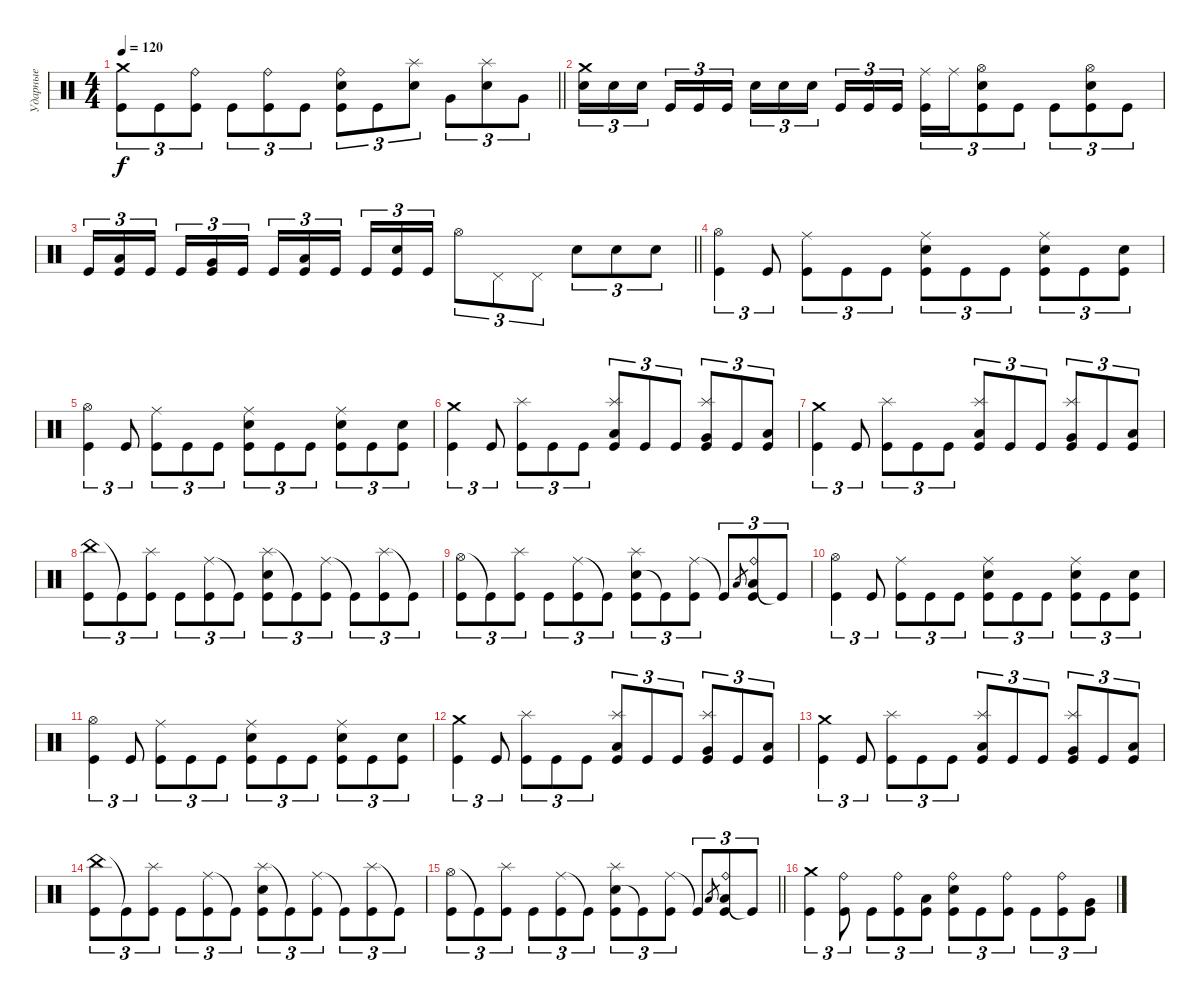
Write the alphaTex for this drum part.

\track ("Ударные" "Ударные") {instrument percussion}
\staff {score}
\articulation defaults
\ts (4 4)
\tempo 120
\clef neutral
\barLineRight lightlight
\ks c
("Crash medium (hit)" "Kick (hit)").8{tu (3 2) dy f} "Kick (hit)".8{tu (3 2)} ("Ride (bell)" "Kick (hit)").8{tu (3 2)} "Kick (hit)".8{tu (3 2)} ("Ride (bell)" "Kick (hit)").8{tu (3 2)} "Kick (hit)".8{tu (3 2)} ("Ride (bell)" "Kick (hit)" "Electric Snare (hit)").8{tu (3 2)} "Kick (hit)".8{tu (3 2)} ("Splash (hit)" "Electric Snare (hit)").8{tu (3 2)} "Very Low Tom (hit)".8{tu (3 2)} ("Splash (hit)" "Electric Snare (hit)").8{tu (3 2)} "Very Low Tom (hit)".8{tu (3 2)} |
("Crash medium (hit)" "Electric Snare (hit)").16{tu (3 2)} "Electric Snare (hit)".16{tu (3 2)} "Electric Snare (hit)".16{tu (3 2) beam splitsecondary} "Kick (hit)".16{tu (3 2)} "Kick (hit)".16{tu (3 2)} "Kick (hit)".16{tu (3 2)} "Electric Snare (hit)".16{tu (3 2)} "Electric Snare (hit)".16{tu (3 2)} "Electric Snare (hit)".16{tu (3 2) beam splitsecondary} "Kick (hit)".16{tu (3 2)} "Kick (hit)".16{tu (3 2)} "Kick (hit)".16{tu (3 2)} ("Ride (middle)" "Kick (hit)").16{tu (3 2)} "Ride (middle)".16{tu (3 2)} ("Hi-Hat (open)" "Electric Snare (hit)" "Kick (hit)").8{tu (3 2)} "Kick (hit)".8{tu (3 2)} "Kick (hit)".8{tu (3 2)} ("Hi-Hat (open)" "Electric Snare (hit)" "Kick (hit)").8{tu (3 2)} "Kick (hit)".8{tu (3 2)} |
\barLineRight lightlight "Kick (hit)".16{tu (3 2)}
("Low Tom (hit)" "Kick (hit)").16{tu (3 2)} "Kick (hit)".16{tu (3 2) beam splitsecondary} "Kick (hit)".16{tu (3 2)} ("Very Low Tom (hit)" "Kick (hit)").16{tu (3 2)} "Kick (hit)".16{tu (3 2)} "Kick (hit)".16{tu (3 2)} ("Kick (hit)" "Low Floor Tom (hit)").16{tu (3 2)} "Kick (hit)".16{tu (3 2) beam splitsecondary} "Kick (hit)".16{tu (3 2)} ("Electric Snare (hit)" "Kick (hit)").16{tu (3 2)} "Kick (hit)".16{tu (3 2)} "Hi-Hat (open)".8{tu (3 2)} "Pedal Hi-Hat (hit)".8{tu (3 2)} "Pedal Hi-Hat (hit)".8{tu (3 2)} "Electric Snare (hit)".8{tu (3 2)} "Electric Snare (hit)".8{tu (3 2)} "Electric Snare (hit)".8{tu (3 2)} |
\section ("" " ")
("Hi-Hat (open)" "Kick (hit)").4{tu (3 2)} "Kick (hit)".8{tu (3 2)} ("Ride (middle)" "Kick (hit)").8{tu (3 2)} "Kick (hit)".8{tu (3 2)} "Kick (hit)".8{tu (3 2)} ("Ride (middle)" "Electric Snare (hit)" "Kick (hit)").8{tu (3 2)} "Kick (hit)".8{tu (3 2)} "Kick (hit)".8{tu (3 2)} ("Ride (middle)" "Electric Snare (hit)" "Kick (hit)").8{tu (3 2)} "Kick (hit)".8{tu (3 2)} ("Electric Snare (hit)" "Kick (hit)").8{tu (3 2)} |
("Hi-Hat (open)" "Kick (hit)").4{tu (3 2)} "Kick (hit)".8{tu (3 2)} ("Ride (middle)" "Kick (hit)").8{tu (3 2)} "Kick (hit)".8{tu (3 2)} "Kick (hit)".8{tu (3 2)} ("Ride (middle)" "Electric Snare (hit)" "Kick (hit)").8{tu (3 2)} "Kick (hit)".8{tu (3 2)} "Kick (hit)".8{tu (3 2)} ("Ride (middle)" "Electric Snare (hit)" "Kick (hit)").8{tu (3 2)} "Kick (hit)".8{tu (3 2)} ("Electric Snare (hit)" "Kick (hit)").8{tu (3 2)} |
("Crash medium (hit)" "Kick (hit)").4{tu (3 2)} "Kick (hit)".8{tu (3 2)} ("Splash (hit)" "Kick (hit)").8{tu (3 2)} "Kick (hit)".8{tu (3 2)} "Kick (hit)".8{tu (3 2)} ("Splash (hit)" "Low Tom (hit)" "Kick (hit)").8{tu (3 2)} "Kick (hit)".8{tu (3 2)} "Kick (hit)".8{tu (3 2)} ("Splash (hit)" "Very Low Tom (hit)" "Kick (hit)").8{tu (3 2)} "Kick (hit)".8{tu (3 2)} ("Low Floor Tom (hit)" "Kick (hit)").8{tu (3 2)} |
("Crash medium (hit)" "Kick (hit)").4{tu (3 2)} "Kick (hit)".8{tu (3 2)} ("Splash (hit)" "Kick (hit)").8{tu (3 2)} "Kick (hit)".8{tu (3 2)} "Kick (hit)".8{tu (3 2)} ("Splash (hit)" "Low Tom (hit)" "Kick (hit)").8{tu (3 2)} "Kick (hit)".8{tu (3 2)} "Kick (hit)".8{tu (3 2)} ("Splash (hit)" "Very Low Tom (hit)" "Kick (hit)").8{tu (3 2)} "Kick (hit)".8{tu (3 2)} ("Low Floor Tom (hit)" "Kick (hit)").8{tu (3 2)} |
("China (hit)" "Kick (hit)").8{tu (3 2)} "Kick (hit)"{t}.8{tu (3 2)} ("Splash (hit)" "Kick (hit)").8{tu (3 2)} "Kick (hit)".8{tu (3 2)} ("Ride (middle)" "Kick (hit)").8{tu (3 2)} "Kick (hit)"{t}.8{tu (3 2)} ("Splash (hit)" "Electric Snare (hit)" "Kick (hit)").8{tu (3 2)} "Kick (hit)"{t}.8{tu (3 2)} ("Ride (middle)" "Kick (hit)").8{tu (3 2)} "Kick (hit)"{t}.8{tu (3 2)} ("Splash (hit)" "Kick (hit)").8{tu (3 2)} "Kick (hit)"{t}.8{tu (3 2)} |
("Hi-Hat (open)" "Kick (hit)").8{tu (3 2)} "Kick (hit)"{t}.8{tu (3 2)} ("Splash (hit)" "Kick (hit)").8{tu (3 2)} "Kick (hit)".8{tu (3 2)} ("Ride (middle)" "Kick (hit)").8{tu (3 2)} "Kick (hit)"{t}.8{tu (3 2)} ("Electric Snare (hit)" "Splash (hit)" "Kick (hit)").8{tu (3 2)} "Kick (hit)"{t}.8{tu (3 2)} ("Ride (middle)" "Kick (hit)").8{tu (3 2)} "Kick (hit)"{t}.8{tu (3 2)} "Low Tom (hit)".8{gr} ("Low Tom (hit)" "Ride (bell)" "Kick (hit)").8{tu (3 2)} "Kick (hit)"{t}.8{tu (3 2)} |
("Hi-Hat (open)" "Kick (hit)").4{tu (3 2)} "Kick (hit)".8{tu (3 2)} ("Ride (middle)" "Kick (hit)").8{tu (3 2)} "Kick (hit)".8{tu (3 2)} "Kick (hit)".8{tu (3 2)} ("Ride (middle)" "Electric Snare (hit)" "Kick (hit)").8{tu (3 2)} "Kick (hit)".8{tu (3 2)} "Kick (hit)".8{tu (3 2)} ("Ride (middle)" "Electric Snare (hit)" "Kick (hit)").8{tu (3 2)} "Kick (hit)".8{tu (3 2)} ("Electric Snare (hit)" "Kick (hit)").8{tu (3 2)} |
("Hi-Hat (open)" "Kick (hit)").4{tu (3 2)} "Kick (hit)".8{tu (3 2)} ("Ride (middle)" "Kick (hit)").8{tu (3 2)} "Kick (hit)".8{tu (3 2)} "Kick (hit)".8{tu (3 2)} ("Ride (middle)" "Electric Snare (hit)" "Kick (hit)").8{tu (3 2)} "Kick (hit)".8{tu (3 2)} "Kick (hit)".8{tu (3 2)} ("Ride (middle)" "Electric Snare (hit)" "Kick (hit)").8{tu (3 2)} "Kick (hit)".8{tu (3 2)} ("Electric Snare (hit)" "Kick (hit)").8{tu (3 2)} |
("Crash medium (hit)" "Kick (hit)").4{tu (3 2)} "Kick (hit)".8{tu (3 2)} ("Splash (hit)" "Kick (hit)").8{tu (3 2)} "Kick (hit)".8{tu (3 2)} "Kick (hit)".8{tu (3 2)} ("Splash (hit)" "Low Tom (hit)" "Kick (hit)").8{tu (3 2)} "Kick (hit)".8{tu (3 2)} "Kick (hit)".8{tu (3 2)} ("Splash (hit)" "Very Low Tom (hit)" "Kick (hit)").8{tu (3 2)} "Kick (hit)".8{tu (3 2)} ("Low Floor Tom (hit)" "Kick (hit)").8{tu (3 2)} |
("Crash medium (hit)" "Kick (hit)").4{tu (3 2)} "Kick (hit)".8{tu (3 2)} ("Splash (hit)" "Kick (hit)").8{tu (3 2)} "Kick (hit)".8{tu (3 2)} "Kick (hit)".8{tu (3 2)} ("Splash (hit)" "Low Tom (hit)" "Kick (hit)").8{tu (3 2)} "Kick (hit)".8{tu (3 2)} "Kick (hit)".8{tu (3 2)} ("Splash (hit)" "Very Low Tom (hit)" "Kick (hit)").8{tu (3 2)} "Kick (hit)".8{tu (3 2)} ("Low Floor Tom (hit)" "Kick (hit)").8{tu (3 2)} |
("China (hit)" "Kick (hit)").8{tu (3 2)} "Kick (hit)"{t}.8{tu (3 2)} ("Splash (hit)" "Kick (hit)").8{tu (3 2)} "Kick (hit)".8{tu (3 2)} ("Ride (middle)" "Kick (hit)").8{tu (3 2)} "Kick (hit)"{t}.8{tu (3 2)} ("Splash (hit)" "Electric Snare (hit)" "Kick (hit)").8{tu (3 2)} "Kick (hit)"{t}.8{tu (3 2)} ("Ride (middle)" "Kick (hit)").8{tu (3 2)} "Kick (hit)"{t}.8{tu (3 2)} ("Splash (hit)" "Kick (hit)").8{tu (3 2)} "Kick (hit)"{t}.8{tu (3 2)} |
\barLineRight lightlight
("Hi-Hat (open)" "Kick (hit)").8{tu (3 2)} "Kick (hit)"{t}.8{tu (3 2)} ("Splash (hit)" "Kick (hit)").8{tu (3 2)} "Kick (hit)".8{tu (3 2)} ("Ride (middle)" "Kick (hit)").8{tu (3 2)} "Kick (hit)"{t}.8{tu (3 2)} ("Electric Snare (hit)" "Splash (hit)" "Kick (hit)").8{tu (3 2)} "Kick (hit)"{t}.8{tu (3 2)} ("Ride (middle)" "Kick (hit)").8{tu (3 2)} "Kick (hit)"{t}.8{tu (3 2)} "Low Tom (hit)".8{gr} ("Low Tom (hit)" "Ride (bell)" "Kick (hit)").8{tu (3 2)} "Kick (hit)"{t}.8{tu (3 2)} |
\section ("" " ")
("Crash medium (hit)" "Kick (hit)").4{tu (3 2)} ("Ride (bell)" "Kick (hit)").8{tu (3 2)} "Kick (hit)".8{tu (3 2)} ("Ride (bell)" "Kick (hit)").8{tu (3 2)} ("Low Floor Tom (hit)" "Kick (hit)").8{tu (3 2)} ("Ride (bell)" "Electric Snare (hit)" "Kick (hit)").8{tu (3 2)} "Kick (hit)".8{tu (3 2)} ("Ride (bell)" "Kick (hit)").8{tu (3 2)} "Kick (hit)".8{tu (3 2)} ("Ride (bell)" "Kick (hit)").8{tu (3 2)} ("Very Low Tom (hit)" "Kick (hit)").8{tu (3 2)}
